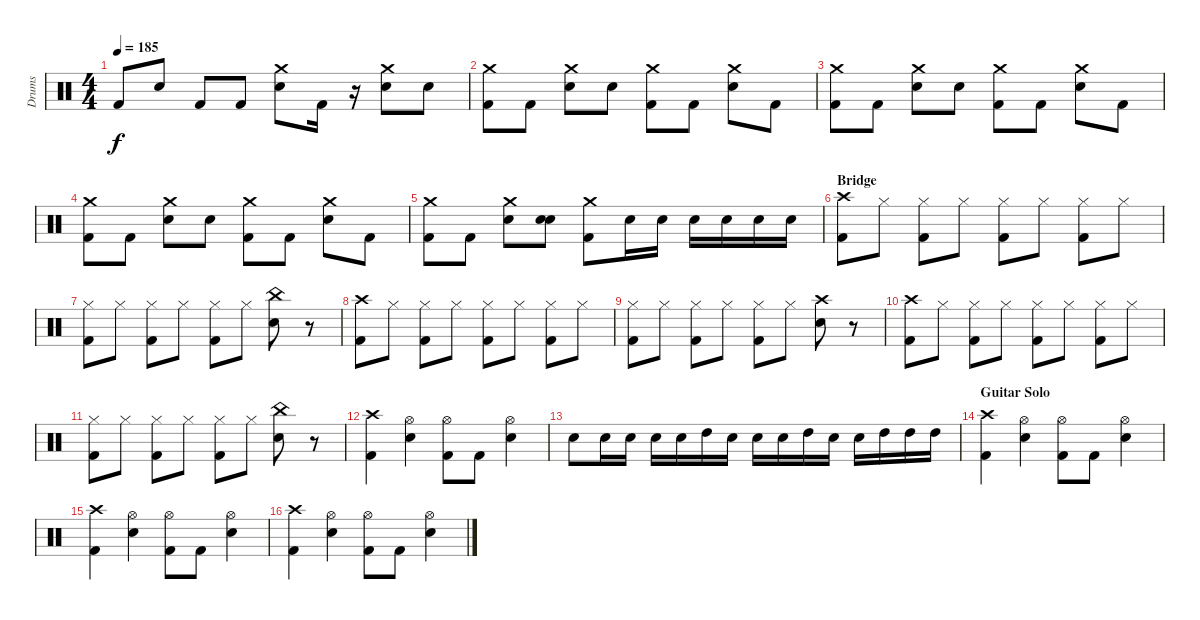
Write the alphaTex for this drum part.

\track ("Drums" "Drums") {instrument percussion}
\staff {score}
\articulation defaults
\ts (4 4)
\tempo 185
\clef neutral
\ks c "Kick (hit) 2".8{dy f} "Electric Snare (hit)".8 "Kick (hit) 2".8 "Kick (hit) 2".8
("Crash medium (hit)" "Electric Snare (hit)").8 "Kick (hit) 2".16 r.16 ("Crash medium (hit)" "Electric Snare (hit)").8 "Electric Snare (hit)".8 |
("Crash medium (hit)" "Kick (hit) 2").8 "Kick (hit) 2".8 ("Crash medium (hit)" "Electric Snare (hit)").8 "Electric Snare (hit)".8 ("Crash medium (hit)" "Kick (hit) 2").8 "Kick (hit) 2".8 ("Crash medium (hit)" "Electric Snare (hit)").8 "Kick (hit) 2".8 |
("Crash medium (hit)" "Kick (hit) 2").8 "Kick (hit) 2".8 ("Crash medium (hit)" "Electric Snare (hit)").8 "Electric Snare (hit)".8 ("Crash medium (hit)" "Kick (hit) 2").8 "Kick (hit) 2".8 ("Crash medium (hit)" "Electric Snare (hit)").8 "Kick (hit) 2".8 |
("Crash medium (hit)" "Kick (hit) 2").8 "Kick (hit) 2".8 ("Crash medium (hit)" "Electric Snare (hit)").8 "Electric Snare (hit)".8 ("Crash medium (hit)" "Kick (hit) 2").8 "Kick (hit) 2".8 ("Crash medium (hit)" "Electric Snare (hit)").8 "Kick (hit) 2".8 |
("Crash medium (hit)" "Kick (hit) 2").8 "Kick (hit) 2".8 ("Crash medium (hit)" "Electric Snare (hit)").8 ("Electric Snare (hit)" "Snare (hit)").8 ("Crash medium (hit)" "Kick (hit) 2").8 "Electric Snare (hit)".16 "Electric Snare (hit)".16 "Electric Snare (hit)".16 "Electric Snare (hit)".16 "Electric Snare (hit)".16 "Electric Snare (hit)".16 |
\section ("" "Bridge")
("Crash high (hit)" "Kick (hit) 2").8 "Hi-Hat (closed)".8 ("Hi-Hat (closed)" "Kick (hit) 2").8 "Hi-Hat (closed)".8 ("Hi-Hat (closed)" "Kick (hit) 2").8 "Hi-Hat (closed)".8 ("Hi-Hat (closed)" "Kick (hit) 2").8 "Hi-Hat (closed)".8 |
("Hi-Hat (closed)" "Kick (hit) 2").8 "Hi-Hat (closed)".8 ("Hi-Hat (closed)" "Kick (hit) 2").8 "Hi-Hat (closed)".8 ("Hi-Hat (closed)" "Kick (hit) 2").8 "Hi-Hat (closed)".8 ("China (hit)" "Electric Snare (hit)").8 r.8 |
("Crash high (hit)" "Kick (hit) 2").8 "Hi-Hat (closed)".8 ("Hi-Hat (closed)" "Kick (hit) 2").8 "Hi-Hat (closed)".8 ("Hi-Hat (closed)" "Kick (hit) 2").8 "Hi-Hat (closed)".8 ("Hi-Hat (closed)" "Kick (hit) 2").8 "Hi-Hat (closed)".8 |
("Hi-Hat (closed)" "Kick (hit) 2").8 "Hi-Hat (closed)".8 ("Hi-Hat (closed)" "Kick (hit) 2").8 "Hi-Hat (closed)".8 ("Hi-Hat (closed)" "Kick (hit) 2").8 "Hi-Hat (closed)".8 ("Crash high (hit)" "Electric Snare (hit)").8 r.8 |
("Crash high (hit)" "Kick (hit) 2").8 "Hi-Hat (closed)".8 ("Hi-Hat (closed)" "Kick (hit) 2").8 "Hi-Hat (closed)".8 ("Hi-Hat (closed)" "Kick (hit) 2").8 "Hi-Hat (closed)".8 ("Hi-Hat (closed)" "Kick (hit) 2").8 "Hi-Hat (closed)".8 |
("Hi-Hat (closed)" "Kick (hit) 2").8 "Hi-Hat (closed)".8 ("Hi-Hat (closed)" "Kick (hit) 2").8 "Hi-Hat (closed)".8 ("Hi-Hat (closed)" "Kick (hit) 2").8 "Hi-Hat (closed)".8 ("China (hit)" "Electric Snare (hit)").8 r.8 |
("Crash high (hit)" "Kick (hit) 2").4 ("Hi-Hat (open)" "Electric Snare (hit)").4 ("Hi-Hat (open)" "Kick (hit) 2").8 "Kick (hit) 2".8 ("Hi-Hat (open)" "Electric Snare (hit)").4 |
"Electric Snare (hit)".8 "Electric Snare (hit)".16 "Electric Snare (hit)".16 "Electric Snare (hit)".16 "Electric Snare (hit)".16 "High Tom (hit)".16 "Electric Snare (hit)".16 "Electric Snare (hit)".16 "Electric Snare (hit)".16 "High Tom (hit)".16 "Electric Snare (hit)".16 "Electric Snare (hit)".16 "High Tom (hit)".16 "High Tom (hit)".16 "High Tom (hit)".16 |
\section ("" "Guitar Solo")
("Crash high (hit)" "Kick (hit) 2").4 ("Hi-Hat (open)" "Electric Snare (hit)").4 ("Hi-Hat (open)" "Kick (hit) 2").8 "Kick (hit) 2".8 ("Hi-Hat (open)" "Electric Snare (hit)").4 |
("Crash high (hit)" "Kick (hit) 2").4 ("Hi-Hat (open)" "Electric Snare (hit)").4 ("Hi-Hat (open)" "Kick (hit) 2").8 "Kick (hit) 2".8 ("Hi-Hat (open)" "Electric Snare (hit)").4 |
("Crash high (hit)" "Kick (hit) 2").4 ("Hi-Hat (open)" "Electric Snare (hit)").4 ("Hi-Hat (open)" "Kick (hit) 2").8 "Kick (hit) 2".8 ("Hi-Hat (open)" "Electric Snare (hit)").4
